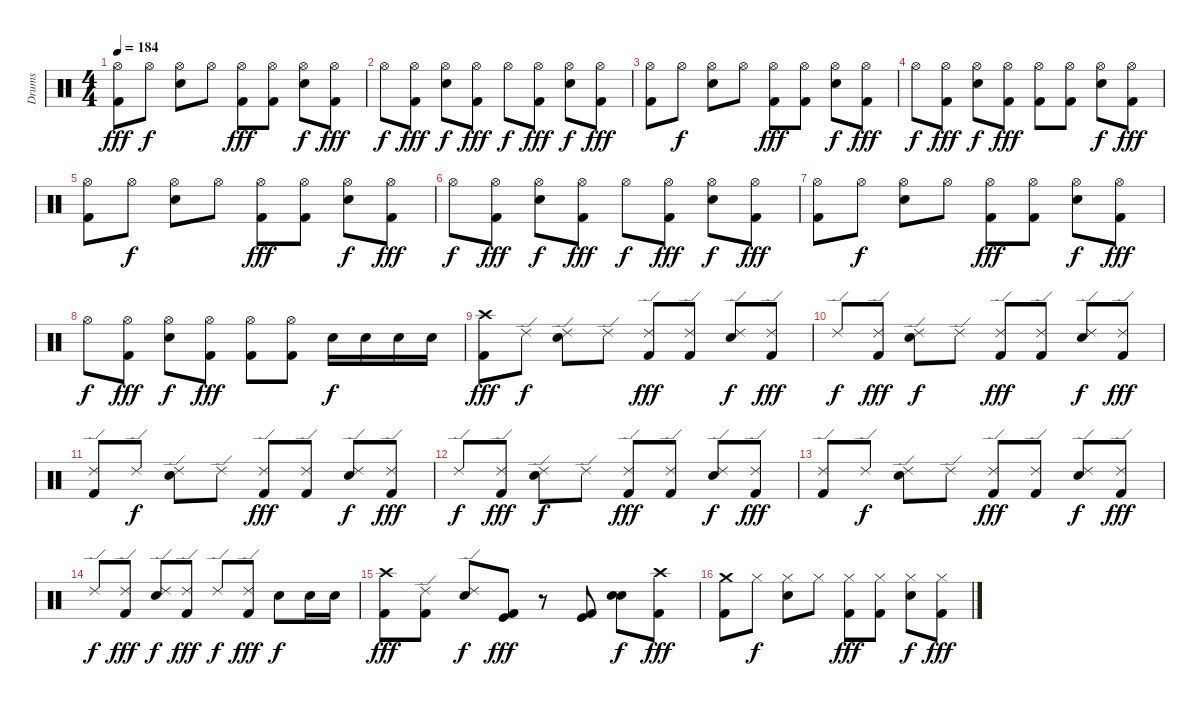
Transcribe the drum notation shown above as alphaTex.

\track ("Drums" "Drums") {instrument percussion}
\staff {score}
\articulation defaults
\ts (4 4)
\tempo 184
\clef neutral
\ks c
("Hi-Hat (open)" "Kick (hit) 2").8{dy fff} "Hi-Hat (open)".8{dy f} ("Hi-Hat (open)" "Snare (hit) 2").8 "Hi-Hat (open)".8 ("Hi-Hat (open)" "Kick (hit) 2").8{dy fff} ("Hi-Hat (open)" "Kick (hit) 2").8 ("Hi-Hat (open)" "Snare (hit) 2").8{dy f} ("Hi-Hat (open)" "Kick (hit) 2").8{dy fff} |
"Hi-Hat (open)".8{dy f} ("Hi-Hat (open)" "Kick (hit) 2").8{dy fff} ("Hi-Hat (open)" "Snare (hit) 2").8{dy f} ("Hi-Hat (open)" "Kick (hit) 2").8{dy fff} "Hi-Hat (open)".8{dy f} ("Hi-Hat (open)" "Kick (hit) 2").8{dy fff} ("Hi-Hat (open)" "Snare (hit) 2").8{dy f} ("Hi-Hat (open)" "Kick (hit) 2").8{dy fff} |
("Hi-Hat (open)" "Kick (hit) 2").8 "Hi-Hat (open)".8{dy f} ("Hi-Hat (open)" "Snare (hit) 2").8 "Hi-Hat (open)".8 ("Hi-Hat (open)" "Kick (hit) 2").8{dy fff} ("Hi-Hat (open)" "Kick (hit) 2").8 ("Hi-Hat (open)" "Snare (hit) 2").8{dy f} ("Hi-Hat (open)" "Kick (hit) 2").8{dy fff} |
"Hi-Hat (open)".8{dy f} ("Hi-Hat (open)" "Kick (hit) 2").8{dy fff} ("Hi-Hat (open)" "Snare (hit) 2").8{dy f} ("Hi-Hat (open)" "Kick (hit) 2").8{dy fff} ("Hi-Hat (open)" "Kick (hit) 2").8 ("Hi-Hat (open)" "Kick (hit) 2").8 ("Hi-Hat (open)" "Snare (hit) 2").8{dy f} ("Hi-Hat (open)" "Kick (hit) 2").8{dy fff} |
("Hi-Hat (open)" "Kick (hit) 2").8 "Hi-Hat (open)".8{dy f} ("Hi-Hat (open)" "Snare (hit) 2").8 "Hi-Hat (open)".8 ("Hi-Hat (open)" "Kick (hit) 2").8{dy fff} ("Hi-Hat (open)" "Kick (hit) 2").8 ("Hi-Hat (open)" "Snare (hit) 2").8{dy f} ("Hi-Hat (open)" "Kick (hit) 2").8{dy fff} |
"Hi-Hat (open)".8{dy f} ("Hi-Hat (open)" "Kick (hit) 2").8{dy fff} ("Hi-Hat (open)" "Snare (hit) 2").8{dy f} ("Hi-Hat (open)" "Kick (hit) 2").8{dy fff} "Hi-Hat (open)".8{dy f} ("Hi-Hat (open)" "Kick (hit) 2").8{dy fff} ("Hi-Hat (open)" "Snare (hit) 2").8{dy f} ("Hi-Hat (open)" "Kick (hit) 2").8{dy fff} |
("Hi-Hat (open)" "Kick (hit) 2").8 "Hi-Hat (open)".8{dy f} ("Hi-Hat (open)" "Snare (hit) 2").8 "Hi-Hat (open)".8 ("Hi-Hat (open)" "Kick (hit) 2").8{dy fff} ("Hi-Hat (open)" "Kick (hit) 2").8 ("Hi-Hat (open)" "Snare (hit) 2").8{dy f} ("Hi-Hat (open)" "Kick (hit) 2").8{dy fff} |
"Hi-Hat (open)".8{dy f} ("Hi-Hat (open)" "Kick (hit) 2").8{dy fff} ("Hi-Hat (open)" "Snare (hit) 2").8{dy f} ("Hi-Hat (open)" "Kick (hit) 2").8{dy fff} ("Hi-Hat (open)" "Kick (hit) 2").8 ("Hi-Hat (open)" "Kick (hit) 2").8 "Snare (hit) 2".16{dy f} "Snare (hit) 2".16 "Snare (hit) 2".16 "Snare (hit) 2".16 |
("Crash high (hit)" "Kick (hit) 2").8{dy fff} "Ride (edge) 2".8{dy f} ("Ride (edge) 2" "Snare (hit) 2").8 "Ride (edge) 2".8 ("Ride (edge) 2" "Kick (hit) 2").8{dy fff} ("Ride (edge) 2" "Kick (hit) 2").8 ("Ride (edge) 2" "Snare (hit) 2").8{dy f} ("Ride (edge) 2" "Kick (hit) 2").8{dy fff} |
"Ride (edge) 2".8{dy f} ("Ride (edge) 2" "Kick (hit) 2").8{dy fff} ("Ride (edge) 2" "Snare (hit) 2").8{dy f} "Ride (edge) 2".8 ("Ride (edge) 2" "Kick (hit) 2").8{dy fff} ("Ride (edge) 2" "Kick (hit) 2").8 ("Ride (edge) 2" "Snare (hit) 2").8{dy f} ("Ride (edge) 2" "Kick (hit) 2").8{dy fff} |
("Ride (edge) 2" "Kick (hit) 2").8 "Ride (edge) 2".8{dy f} ("Ride (edge) 2" "Snare (hit) 2").8 "Ride (edge) 2".8 ("Ride (edge) 2" "Kick (hit) 2").8{dy fff} ("Ride (edge) 2" "Kick (hit) 2").8 ("Ride (edge) 2" "Snare (hit) 2").8{dy f} ("Ride (edge) 2" "Kick (hit) 2").8{dy fff} |
"Ride (edge) 2".8{dy f} ("Ride (edge) 2" "Kick (hit) 2").8{dy fff} ("Ride (edge) 2" "Snare (hit) 2").8{dy f} "Ride (edge) 2".8 ("Ride (edge) 2" "Kick (hit) 2").8{dy fff} ("Ride (edge) 2" "Kick (hit) 2").8 ("Ride (edge) 2" "Snare (hit) 2").8{dy f} ("Ride (edge) 2" "Kick (hit) 2").8{dy fff} |
("Ride (edge) 2" "Kick (hit) 2").8 "Ride (edge) 2".8{dy f} ("Ride (edge) 2" "Snare (hit) 2").8 "Ride (edge) 2".8 ("Ride (edge) 2" "Kick (hit) 2").8{dy fff} ("Ride (edge) 2" "Kick (hit) 2").8 ("Ride (edge) 2" "Snare (hit) 2").8{dy f} ("Ride (edge) 2" "Kick (hit) 2").8{dy fff} |
"Ride (edge) 2".8{dy f} ("Ride (edge) 2" "Kick (hit) 2").8{dy fff} ("Ride (edge) 2" "Snare (hit) 2").8{dy f} ("Ride (edge) 2" "Kick (hit) 2").8{dy fff} "Ride (edge) 2".8{dy f} ("Ride (edge) 2" "Kick (hit) 2").8{dy fff} "Snare (hit) 2".8{dy f} "Snare (hit) 2".16 "Snare (hit) 2".16 |
("Crash high (hit)" "Kick (hit) 2").8{dy fff} ("Ride (edge) 2" "Kick (hit) 2").8 ("Ride (edge) 2" "Snare (hit) 2").8{dy f} ("Kick (hit)" "Kick (hit) 2").8{dy fff} r.8 ("Kick (hit)" "Kick (hit) 2").8 ("Snare (hit) 2" "Snare (hit) 2").8{dy f} ("Crash high (hit)" "Kick (hit) 2").8{dy fff} |
("Crash medium (hit)" "Kick (hit) 2").8 "Hi-Hat (closed)".8{dy f} ("Hi-Hat (closed)" "Snare (hit) 2").8 "Hi-Hat (closed)".8 ("Hi-Hat (closed)" "Kick (hit) 2").8{dy fff} ("Hi-Hat (closed)" "Kick (hit) 2").8 ("Hi-Hat (closed)" "Snare (hit) 2").8{dy f} ("Hi-Hat (closed)" "Kick (hit) 2").8{dy fff}
